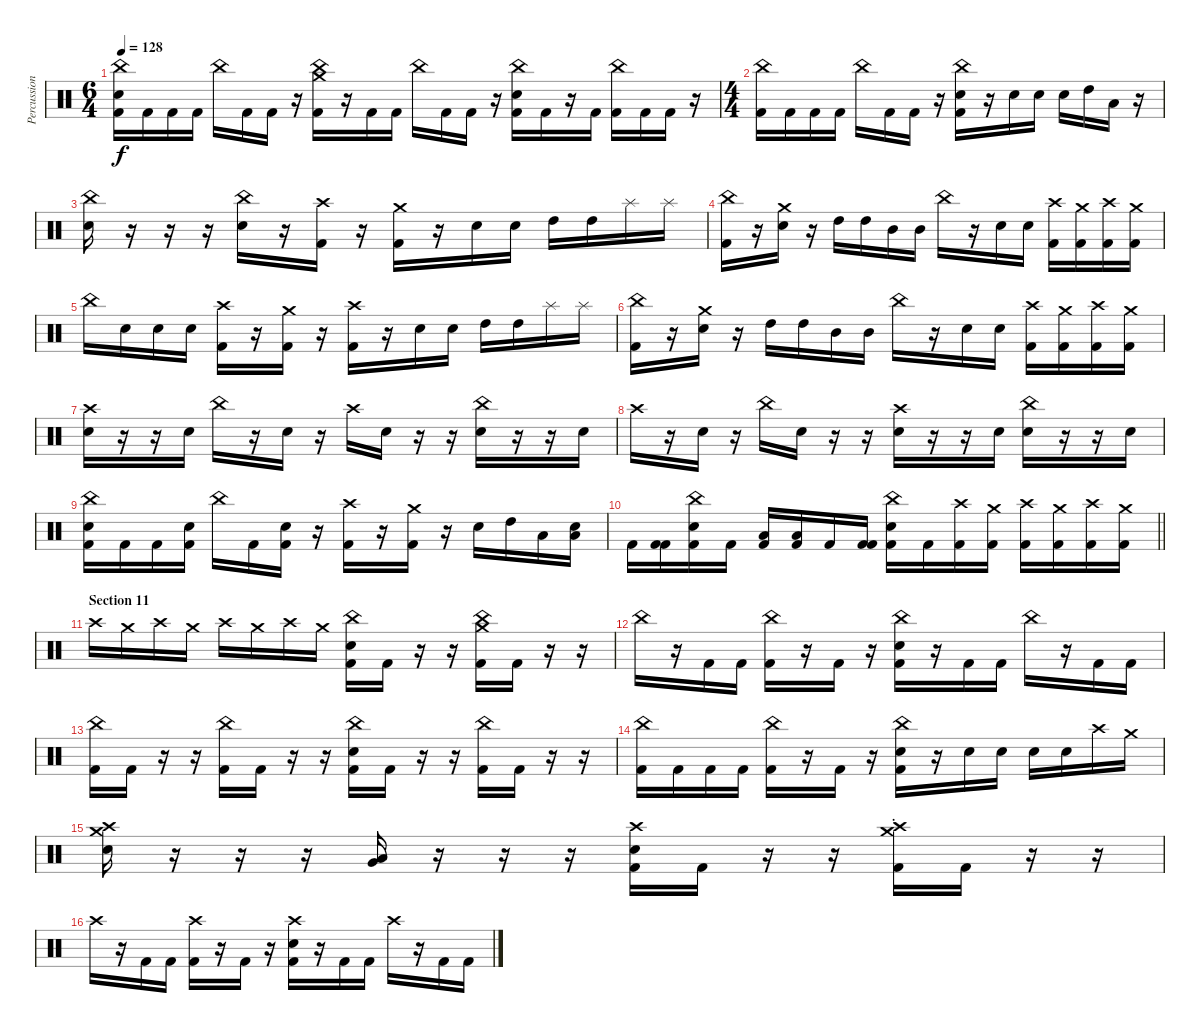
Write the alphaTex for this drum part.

\track ("Percussion" "Percussion") {instrument percussion}
\staff {score}
\articulation defaults
\ts (6 4)
\tempo 128
\clef neutral
\ks c
("China (hit)" "Snare (hit) 2" "Kick (hit) 2").16{dy f} "Kick (hit) 2".16 "Kick (hit) 2".16 "Kick (hit) 2".16 "China (hit)".16 "Kick (hit) 2".16 "Kick (hit) 2".16 r.16 ("China (hit)" "Crash medium (hit)" "Kick (hit) 2").16 r.16 "Kick (hit) 2".16 "Kick (hit) 2".16 "China (hit)".16 "Kick (hit) 2".16 "Kick (hit) 2".16 r.16 ("China (hit)" "Snare (hit) 2" "Kick (hit) 2").16 "Kick (hit) 2".16 r.16 "Kick (hit) 2".16 ("China (hit)" "Kick (hit) 2").16 "Kick (hit) 2".16 "Kick (hit) 2".16 r.16 |
\ts (4 4)
("China (hit)" "Kick (hit) 2").16 "Kick (hit) 2".16 "Kick (hit) 2".16 "Kick (hit) 2".16 "China (hit)".16 "Kick (hit) 2".16 "Kick (hit) 2".16 r.16 ("China (hit)" "Snare (hit) 2" "Kick (hit) 2").16 r.16 "Snare (hit) 2".16 "Snare (hit) 2".16 "Snare (hit) 2".16 "High Tom (hit)".16 "Low Tom (hit)".16 r.16 |
("China (hit)" "Snare (hit) 2").16 r.16 r.16 r.16 ("China (hit)" "Snare (hit) 2").16 r.16 ("Crash high (hit)" "Kick (hit) 2").16 r.16 ("Crash medium (hit)" "Kick (hit) 2").16 r.16 "Snare (hit) 2".16 "Snare (hit) 2".16 "High Tom (hit)".16 "High Tom (hit)".16 "Splash (hit)".16 "Splash (hit)".16 |
("China (hit)" "Kick (hit) 2").16 r.16 ("Crash medium (hit)" "Snare (hit) 2").16 r.16 "High Tom (hit)".16 "High Tom (hit)".16 "Mid Tom (hit)".16 "Mid Tom (hit)".16 "China (hit)".16 r.16 "Snare (hit) 2".16 "Snare (hit) 2".16 ("Crash high (hit)" "Kick (hit) 2").16 ("Crash medium (hit)" "Kick (hit) 2").16 ("Crash high (hit)" "Kick (hit) 2").16 ("Crash medium (hit)" "Kick (hit) 2").16 |
"China (hit)".16 "Snare (hit) 2".16 "Snare (hit) 2".16 "Snare (hit) 2".16 ("Crash high (hit)" "Kick (hit) 2").16 r.16 ("Crash medium (hit)" "Kick (hit) 2").16 r.16 ("Crash high (hit)" "Kick (hit) 2").16 r.16 "Snare (hit) 2".16 "Snare (hit) 2".16 "High Tom (hit)".16 "High Tom (hit)".16 "Splash (hit)".16 "Splash (hit)".16 |
("China (hit)" "Kick (hit) 2").16 r.16 ("Crash medium (hit)" "Snare (hit) 2").16 r.16 "High Tom (hit)".16 "High Tom (hit)".16 "Mid Tom (hit)".16 "Mid Tom (hit)".16 "China (hit)".16 r.16 "Snare (hit) 2".16 "Snare (hit) 2".16 ("Crash high (hit)" "Kick (hit) 2").16 ("Crash medium (hit)" "Kick (hit) 2").16 ("Crash high (hit)" "Kick (hit) 2").16 ("Crash medium (hit)" "Kick (hit) 2").16 |
("Crash high (hit)" "Snare (hit) 2").16 r.16 r.16 "Snare (hit) 2".16 "China (hit)".16 r.16 "Snare (hit) 2".16 r.16 "Crash high (hit)".16 "Snare (hit) 2".16 r.16 r.16 ("China (hit)" "Snare (hit) 2").16 r.16 r.16 "Snare (hit) 2".16 |
"Crash high (hit)".16 r.16 "Snare (hit) 2".16 r.16 "China (hit)".16 "Snare (hit) 2".16 r.16 r.16 ("Crash high (hit)" "Snare (hit) 2").16 r.16 r.16 "Snare (hit) 2".16 ("China (hit)" "Snare (hit) 2").16 r.16 r.16 "Snare (hit) 2".16 |
("China (hit)" "Snare (hit) 2" "Kick (hit) 2").16 "Kick (hit) 2".16 "Kick (hit) 2".16 ("Snare (hit) 2" "Kick (hit) 2").16 "China (hit)".16 "Kick (hit) 2".16 ("Snare (hit) 2" "Kick (hit) 2").16 r.16 ("Crash high (hit)" "Kick (hit) 2").16 r.16 ("Crash medium (hit)" "Kick (hit) 2").16 r.16 "Snare (hit) 2".16 "High Tom (hit)".16 "Low Tom (hit)".16 ("Low Tom (hit)" "Snare (hit) 2").16 |
\barLineRight lightlight "Kick (hit) 2".16
("Kick (hit) 2" "Kick (hit) 2").16 ("China (hit)" "Snare (hit) 2" "Kick (hit) 2").16 "Kick (hit) 2".16 ("Low Tom (hit)" "Kick (hit) 2").16 ("Low Tom (hit)" "Kick (hit) 2").16 "Kick (hit) 2".16 ("Kick (hit) 2" "Kick (hit) 2").16 ("China (hit)" "Snare (hit) 2" "Kick (hit) 2").16 "Kick (hit) 2".16 ("Crash high (hit)" "Kick (hit) 2").16 ("Crash medium (hit)" "Kick (hit) 2").16 ("Crash high (hit)" "Kick (hit) 2").16 ("Crash medium (hit)" "Kick (hit) 2").16 ("Crash high (hit)" "Kick (hit) 2").16 ("Crash medium (hit)" "Kick (hit) 2").16 |
\section ("" "Section 11")
"Crash high (hit)".16 "Crash medium (hit)".16 "Crash high (hit)".16 "Crash medium (hit)".16 "Crash high (hit)".16 "Crash medium (hit)".16 "Crash high (hit)".16 "Crash medium (hit)".16 ("China (hit)" "Snare (hit) 2" "Kick (hit) 2").16 "Kick (hit) 2".16 r.16 r.16 ("China (hit)" "Crash medium (hit)" "Kick (hit) 2").16 "Kick (hit) 2".16 r.16 r.16 |
"China (hit)".16 r.16 "Kick (hit) 2".16 "Kick (hit) 2".16 ("China (hit)" "Kick (hit) 2").16 r.16 "Kick (hit) 2".16 r.16 ("China (hit)" "Snare (hit) 2" "Kick (hit) 2").16 r.16 "Kick (hit) 2".16 "Kick (hit) 2".16 "China (hit)".16 r.16 "Kick (hit) 2".16 "Kick (hit) 2".16 |
("China (hit)" "Kick (hit) 2").16 "Kick (hit) 2".16 r.16 r.16 ("China (hit)" "Kick (hit) 2").16 "Kick (hit) 2".16 r.16 r.16 ("China (hit)" "Snare (hit) 2" "Kick (hit) 2").16 "Kick (hit) 2".16 r.16 r.16 ("China (hit)" "Kick (hit) 2").16 "Kick (hit) 2".16 r.16 r.16 |
("China (hit)" "Kick (hit) 2").16 "Kick (hit) 2".16 "Kick (hit) 2".16 "Kick (hit) 2".16 ("China (hit)" "Kick (hit) 2").16 r.16 "Kick (hit) 2".16 r.16 ("China (hit)" "Snare (hit) 2" "Kick (hit) 2").16 r.16 "Snare (hit) 2".16 "Snare (hit) 2".16 "Snare (hit) 2".16 "Snare (hit) 2".16 "Crash high (hit)".16 "Crash medium (hit)".16 |
("Crash medium (hit)" "Crash high (hit)" "Snare (hit) 2").16 r.16 r.16 r.16 ("Very Low Tom (hit)" "Low Tom (hit)").16 r.16 r.16 r.16 ("Crash high (hit)" "Snare (hit) 2" "Kick (hit) 2").16 "Kick (hit) 2".16 r.16 r.16 ("Crash high (hit)"{st} "Crash medium (hit)" "Kick (hit) 2").16 "Kick (hit) 2".16 r.16 r.16 |
"Crash high (hit)".16 r.16 "Kick (hit) 2".16 "Kick (hit) 2".16 ("Crash high (hit)" "Kick (hit) 2").16 r.16 "Kick (hit) 2".16 r.16 ("Crash high (hit)" "Snare (hit) 2" "Kick (hit) 2").16 r.16 "Kick (hit) 2".16 "Kick (hit) 2".16 "Crash high (hit)".16 r.16 "Kick (hit) 2".16 "Kick (hit) 2".16
